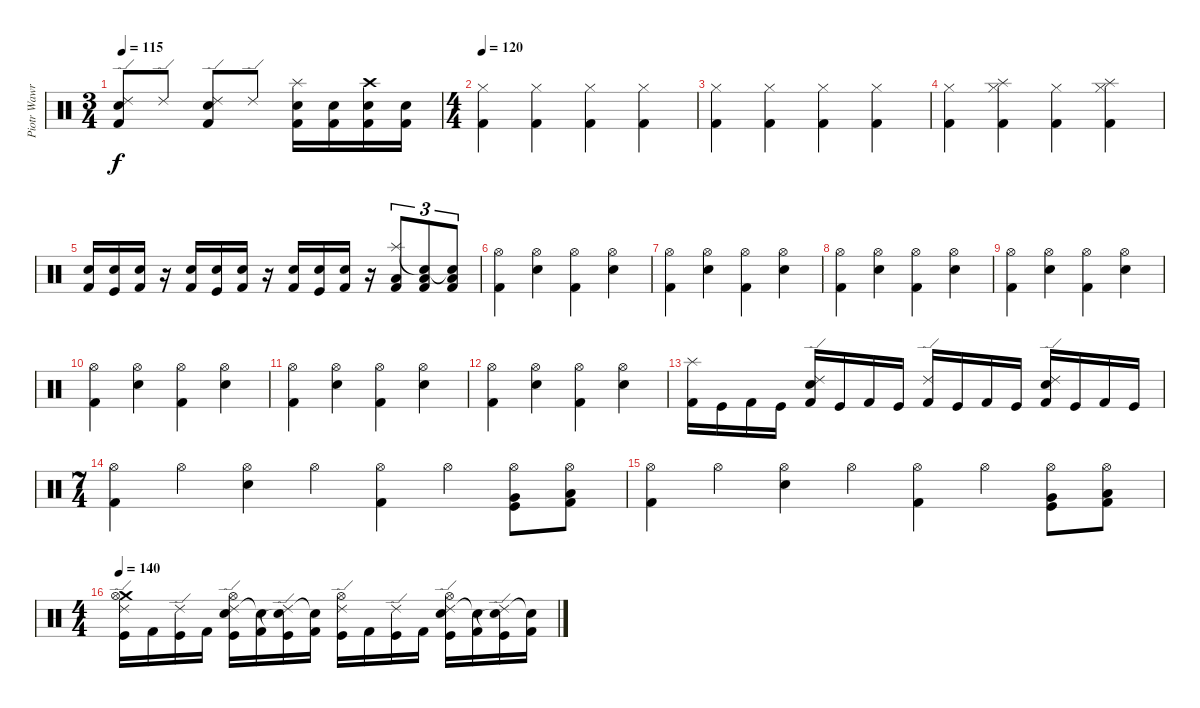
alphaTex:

\track ("Piotr Wawrzeniuk" "Piotr Wawr") {instrument percussion}
\staff {score}
\articulation defaults
\ts (3 4)
\tempo 115
\clef neutral
\ks c
("Ride (edge) 2" "Electric Snare (hit)" "Kick (hit) 2").8{dy f} "Ride (edge) 2".8 ("Ride (edge) 2" "Electric Snare (hit)" "Kick (hit) 2").8 "Ride (edge) 2".8 ("Splash (hit)" "Electric Snare (hit)" "Kick (hit) 2").16 ("Electric Snare (hit)" "Kick (hit) 2").16 ("Crash high (hit)" "Electric Snare (hit)" "Kick (hit) 2").16 ("Electric Snare (hit)" "Kick (hit) 2").16 |
\ts (4 4)
\tempo 120
("Hi-Hat (closed)" "Kick (hit) 2").4 ("Hi-Hat (closed)" "Kick (hit) 2").4 ("Hi-Hat (closed)" "Kick (hit) 2").4 ("Hi-Hat (closed)" "Kick (hit) 2").4 |
("Hi-Hat (closed)" "Kick (hit) 2").4 ("Hi-Hat (closed)" "Kick (hit) 2").4 ("Hi-Hat (closed)" "Kick (hit) 2").4 ("Hi-Hat (closed)" "Kick (hit) 2").4 |
("Hi-Hat (closed)" "Kick (hit) 2").4 ("Splash (hit)" "Hi-Hat (closed)" "Kick (hit) 2").4 ("Hi-Hat (closed)" "Kick (hit) 2").4 ("Splash (hit)" "Hi-Hat (closed)" "Kick (hit) 2").4 |
("Electric Snare (hit)" "Kick (hit) 2").16 ("Electric Snare (hit)" "Kick (hit)").16 ("Electric Snare (hit)" "Kick (hit) 2").16 r.16 ("Electric Snare (hit)" "Kick (hit) 2").16 ("Electric Snare (hit)" "Kick (hit)").16 ("Electric Snare (hit)" "Kick (hit) 2").16 r.16 ("Electric Snare (hit)" "Kick (hit) 2").16 ("Electric Snare (hit)" "Kick (hit)").16 ("Electric Snare (hit)" "Kick (hit) 2").16 r.16 ("Splash (hit)" "Low Tom (hit)" "Kick (hit) 2").8{tu (3 2)} ("Snare (hit)"{t} "Low Tom (hit)" "Kick (hit) 2").8{tu (3 2)} ("Snare (hit)"{t} "Low Floor Tom (hit)" "Kick (hit) 2").8{tu (3 2)} |
("Hi-Hat (open)" "Kick (hit) 2").4 ("Electric Snare (hit)" "Hi-Hat (open)").4 ("Hi-Hat (open)" "Kick (hit) 2").4 ("Electric Snare (hit)" "Hi-Hat (open)").4 |
("Hi-Hat (open)" "Kick (hit) 2").4 ("Electric Snare (hit)" "Hi-Hat (open)").4 ("Hi-Hat (open)" "Kick (hit) 2").4 ("Electric Snare (hit)" "Hi-Hat (open)").4 |
("Hi-Hat (open)" "Kick (hit) 2").4 ("Electric Snare (hit)" "Hi-Hat (open)").4 ("Hi-Hat (open)" "Kick (hit) 2").4 ("Electric Snare (hit)" "Hi-Hat (open)").4 |
("Hi-Hat (open)" "Kick (hit) 2").4 ("Electric Snare (hit)" "Hi-Hat (open)").4 ("Hi-Hat (open)" "Kick (hit) 2").4 ("Electric Snare (hit)" "Hi-Hat (open)").4 |
("Hi-Hat (open)" "Kick (hit) 2").4 ("Electric Snare (hit)" "Hi-Hat (open)").4 ("Hi-Hat (open)" "Kick (hit) 2").4 ("Electric Snare (hit)" "Hi-Hat (open)").4 |
("Hi-Hat (open)" "Kick (hit) 2").4 ("Electric Snare (hit)" "Hi-Hat (open)").4 ("Hi-Hat (open)" "Kick (hit) 2").4 ("Electric Snare (hit)" "Hi-Hat (open)").4 |
("Hi-Hat (open)" "Kick (hit) 2").4 ("Electric Snare (hit)" "Hi-Hat (open)").4 ("Hi-Hat (open)" "Kick (hit) 2").4 ("Electric Snare (hit)" "Hi-Hat (open)").4 |
("Splash (hit)" "Kick (hit) 2").16 "Kick (hit)".16 "Kick (hit) 2".16 "Kick (hit)".16 ("Ride (edge) 2" "Electric Snare (hit)" "Kick (hit) 2").16 "Kick (hit)".16 "Kick (hit) 2".16 "Kick (hit)".16 ("Ride (edge) 2" "Kick (hit) 2").16 "Kick (hit)".16 "Kick (hit) 2".16 "Kick (hit)".16 ("Ride (edge) 2" "Electric Snare (hit)" "Kick (hit) 2").16 "Kick (hit)".16 "Kick (hit) 2".16 "Kick (hit)".16 |
\ts (7 4)
("Hi-Hat (open)" "Kick (hit) 2").4 "Hi-Hat (open)".4 ("Hi-Hat (open)" "Electric Snare (hit)").4 "Hi-Hat (open)".4 ("Hi-Hat (open)" "Kick (hit) 2").4 "Hi-Hat (open)".4 ("Hi-Hat (open)" "Very Low Tom (hit)" "Kick (hit)").8 ("Hi-Hat (open)" "Low Floor Tom (hit)" "Kick (hit) 2").8 |
("Hi-Hat (open)" "Kick (hit) 2").4 "Hi-Hat (open)".4 ("Hi-Hat (open)" "Electric Snare (hit)").4 "Hi-Hat (open)".4 ("Hi-Hat (open)" "Kick (hit) 2").4 "Hi-Hat (open)".4 ("Hi-Hat (open)" "Very Low Tom (hit)" "Kick (hit)").8 ("Hi-Hat (open)" "Low Floor Tom (hit)" "Kick (hit) 2").8 |
\ts (4 4)
\tempo 150
\tempo 140
("Ride (edge) 2" "Crash medium (hit)" "Hi-Hat (open)" "Kick (hit)").16 "Kick (hit) 2".16 ("Ride (edge) 2" "Kick (hit)").16 "Kick (hit) 2".16 ("Ride (edge) 2" "Electric Snare (hit)" "Hi-Hat (open)" "Kick (hit)").16 ("Snare (hit)"{t} "Kick (hit) 2").16 ("Ride (edge) 2" "Electric Snare (hit)"{t} "Kick (hit)").16 ("Snare (hit)"{t} "Kick (hit) 2").16 ("Ride (edge) 2" "Hi-Hat (open)" "Kick (hit)").16 "Kick (hit) 2".16 ("Ride (edge) 2" "Kick (hit)").16 "Kick (hit) 2".16 ("Ride (edge) 2" "Electric Snare (hit)" "Hi-Hat (open)" "Kick (hit)").16 ("Snare (hit)"{t} "Kick (hit) 2").16 ("Ride (edge) 2" "Electric Snare (hit)"{t} "Kick (hit)").16 ("Snare (hit)"{t} "Kick (hit) 2").16
